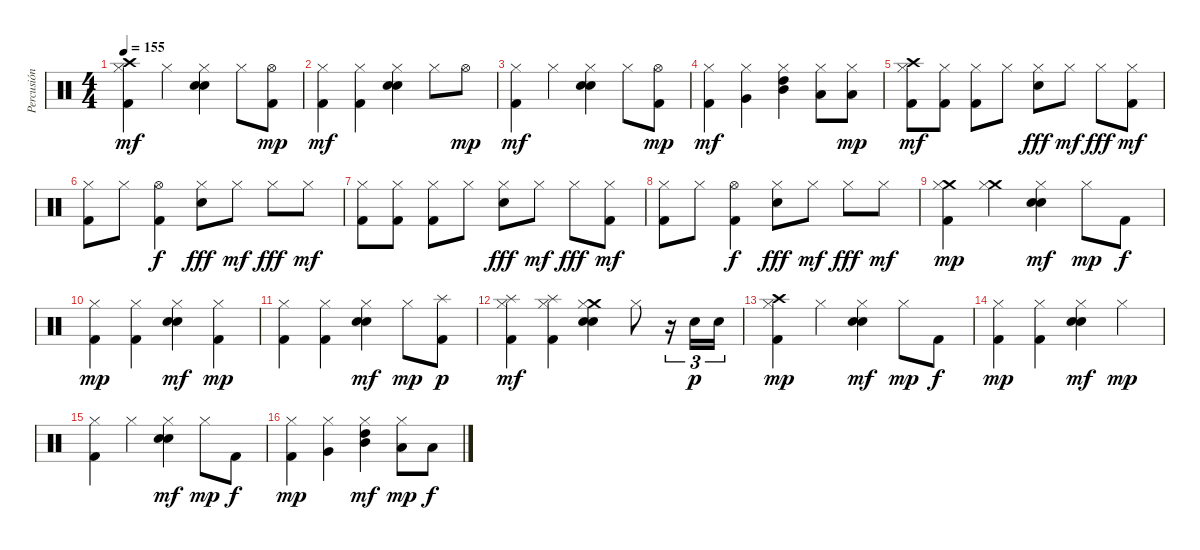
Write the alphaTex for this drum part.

\track ("Percusión" "Percusión") {instrument percussion}
\staff {score}
\articulation defaults
\ts (4 4)
\tempo 155
\clef neutral
\ks c
("Crash high (hit)" "Hi-Hat (closed)" "Kick (hit) 2").4{dy mf} "Hi-Hat (closed)".4 ("Hi-Hat (closed)" "Electric Snare (hit)" "Hand Clap (hit)").4 "Hi-Hat (closed)".8 ("Hi-Hat (open)" "Kick (hit) 2").8{dy mp} |
("Hi-Hat (closed)" "Kick (hit) 2").4{dy mf} ("Hi-Hat (closed)" "Kick (hit) 2").4 ("Hi-Hat (closed)" "Electric Snare (hit)" "Hand Clap (hit)").4 "Hi-Hat (closed)".8 "Hi-Hat (open)".8{dy mp} |
("Hi-Hat (closed)" "Kick (hit) 2").4{dy mf} "Hi-Hat (closed)".4 ("Hi-Hat (closed)" "Electric Snare (hit)" "Hand Clap (hit)").4 "Hi-Hat (closed)".8 ("Hi-Hat (open)" "Kick (hit) 2").8{dy mp} |
("Hi-Hat (closed)" "Kick (hit) 2").4{dy mf} ("Hi-Hat (closed)" "Very Low Tom (hit)").4 ("Hi-Hat (closed)" "High Tom (hit)" "Mid Tom (hit)").4 ("Hi-Hat (closed)" "Low Floor Tom (hit)").8 ("Hi-Hat (closed)" "Low Floor Tom (hit)").8{dy mp} |
("Crash high (hit)" "Hi-Hat (closed)" "Kick (hit) 2").8{dy mf} ("Hi-Hat (closed)" "Kick (hit) 2").8 ("Hi-Hat (closed)" "Kick (hit) 2").8 "Hi-Hat (closed)".8 ("Hi-Hat (closed)" "Electric Snare (hit)").8{dy fff} "Hi-Hat (closed)".8{dy mf} "Hi-Hat (closed)".8{dy fff} ("Hi-Hat (closed)" "Kick (hit) 2").8{dy mf} |
("Hi-Hat (closed)" "Kick (hit) 2").8 "Hi-Hat (closed)".8 ("Hi-Hat (open)" "Kick (hit) 2").4{dy f} ("Hi-Hat (closed)" "Electric Snare (hit)").8{dy fff} "Hi-Hat (closed)".8{dy mf} "Hi-Hat (closed)".8{dy fff} "Hi-Hat (closed)".8{dy mf} |
("Hi-Hat (closed)" "Kick (hit) 2").8 ("Hi-Hat (closed)" "Kick (hit) 2").8 ("Hi-Hat (closed)" "Kick (hit) 2").8 "Hi-Hat (closed)".8 ("Hi-Hat (closed)" "Electric Snare (hit)").8{dy fff} "Hi-Hat (closed)".8{dy mf} "Hi-Hat (closed)".8{dy fff} ("Hi-Hat (closed)" "Kick (hit) 2").8{dy mf} |
("Hi-Hat (closed)" "Kick (hit) 2").8 "Hi-Hat (closed)".8 ("Hi-Hat (open)" "Kick (hit) 2").4{dy f} ("Hi-Hat (closed)" "Electric Snare (hit)").8{dy fff} "Hi-Hat (closed)".8{dy mf} "Hi-Hat (closed)".8{dy fff} "Hi-Hat (closed)".8{dy mf} |
("Crash medium (hit)" "Hi-Hat (closed)" "Kick (hit) 2").4{dy mp} ("Crash medium (hit)" "Hi-Hat (closed)").4 ("Hi-Hat (closed)" "Electric Snare (hit)" "Hand Clap (hit)").4{dy mf} "Hi-Hat (closed)".8{dy mp} "Kick (hit) 2".8{dy f} |
("Hi-Hat (closed)" "Kick (hit) 2").4{dy mp} ("Hi-Hat (closed)" "Kick (hit) 2").4 ("Hi-Hat (closed)" "Electric Snare (hit)" "Hand Clap (hit)").4{dy mf} ("Hi-Hat (closed)" "Kick (hit) 2").4{dy mp} |
("Hi-Hat (closed)" "Kick (hit) 2").4 ("Hi-Hat (closed)" "Kick (hit) 2").4 ("Hi-Hat (closed)" "Electric Snare (hit)" "Hand Clap (hit)").4{dy mf} "Hi-Hat (closed)".8{dy mp} ("Splash (hit)" "Kick (hit) 2").8{dy p} |
("Splash (hit)" "Hi-Hat (closed)" "Kick (hit) 2").4{dy mf} ("Splash (hit)" "Hi-Hat (closed)" "Kick (hit) 2").4 ("Crash medium (hit)" "Hi-Hat (closed)" "Electric Snare (hit)" "Hand Clap (hit)").4 "Hi-Hat (closed)".8 r.16{tu (3 2)} "Snare (hit) 2".16{tu (3 2) dy p} "Snare (hit) 2".16{tu (3 2)} |
("Crash high (hit)" "Hi-Hat (closed)" "Kick (hit) 2").4{dy mp} "Hi-Hat (closed)".4 ("Hi-Hat (closed)" "Electric Snare (hit)" "Hand Clap (hit)").4{dy mf} "Hi-Hat (closed)".8{dy mp} "Kick (hit) 2".8{dy f} |
("Hi-Hat (closed)" "Kick (hit) 2").4{dy mp} ("Hi-Hat (closed)" "Kick (hit) 2").4 ("Hi-Hat (closed)" "Electric Snare (hit)" "Hand Clap (hit)").4{dy mf} "Hi-Hat (closed)".4{dy mp} |
("Hi-Hat (closed)" "Kick (hit) 2").4 "Hi-Hat (closed)".4 ("Hi-Hat (closed)" "Electric Snare (hit)" "Hand Clap (hit)").4{dy mf} "Hi-Hat (closed)".8{dy mp} "Kick (hit) 2".8{dy f} |
("Hi-Hat (closed)" "Kick (hit) 2").4{dy mp} ("Hi-Hat (closed)" "Very Low Tom (hit)").4 ("Hi-Hat (closed)" "High Tom (hit)" "Mid Tom (hit)").4{dy mf} ("Hi-Hat (closed)" "Low Floor Tom (hit)").8{dy mp} "Low Floor Tom (hit)".8{dy f}
